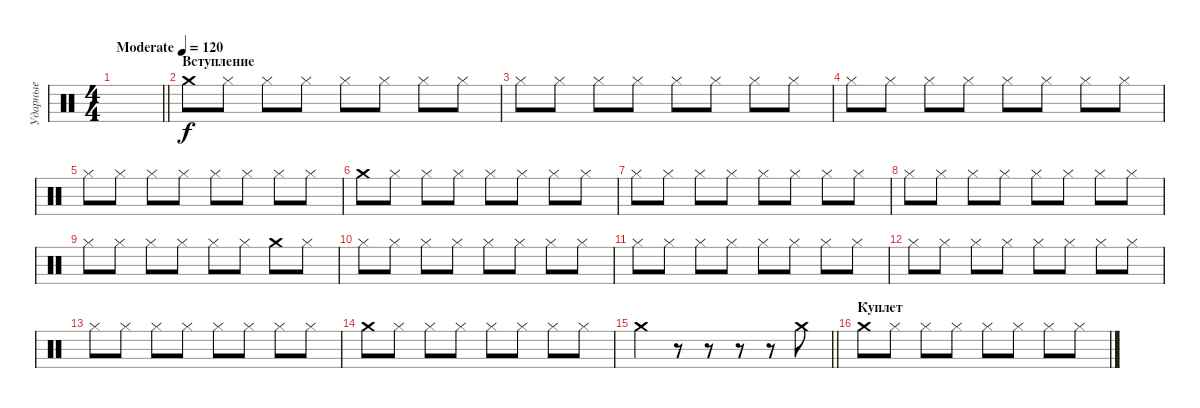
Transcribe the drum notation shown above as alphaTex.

\track ("Ударные" "Ударные") {instrument percussion}
\staff {score}
\articulation defaults
\ts (4 4)
\tempo (120 "Moderate")
\clef neutral
\barLineRight lightlight
\ks c
|
\section ("" "Вступление")
"Crash medium (hit)".8 "Hi-Hat (closed)".8 "Hi-Hat (closed)".8 "Hi-Hat (closed)".8 "Hi-Hat (closed)".8 "Hi-Hat (closed)".8 "Hi-Hat (closed)".8 "Hi-Hat (closed)".8 |
"Hi-Hat (closed)".8 "Hi-Hat (closed)".8 "Hi-Hat (closed)".8 "Hi-Hat (closed)".8 "Hi-Hat (closed)".8 "Hi-Hat (closed)".8 "Hi-Hat (closed)".8 "Hi-Hat (closed)".8 |
"Hi-Hat (closed)".8 "Hi-Hat (closed)".8 "Hi-Hat (closed)".8 "Hi-Hat (closed)".8 "Hi-Hat (closed)".8 "Hi-Hat (closed)".8 "Hi-Hat (closed)".8 "Hi-Hat (closed)".8 |
"Hi-Hat (closed)".8 "Hi-Hat (closed)".8 "Hi-Hat (closed)".8 "Hi-Hat (closed)".8 "Hi-Hat (closed)".8 "Hi-Hat (closed)".8 "Hi-Hat (closed)".8 "Hi-Hat (closed)".8 |
"Crash medium (hit)".8 "Hi-Hat (closed)".8 "Hi-Hat (closed)".8 "Hi-Hat (closed)".8 "Hi-Hat (closed)".8 "Hi-Hat (closed)".8 "Hi-Hat (closed)".8 "Hi-Hat (closed)".8 |
"Hi-Hat (closed)".8 "Hi-Hat (closed)".8 "Hi-Hat (closed)".8 "Hi-Hat (closed)".8 "Hi-Hat (closed)".8 "Hi-Hat (closed)".8 "Hi-Hat (closed)".8 "Hi-Hat (closed)".8 |
"Hi-Hat (closed)".8 "Hi-Hat (closed)".8 "Hi-Hat (closed)".8 "Hi-Hat (closed)".8 "Hi-Hat (closed)".8 "Hi-Hat (closed)".8 "Hi-Hat (closed)".8 "Hi-Hat (closed)".8 |
"Hi-Hat (closed)".8 "Hi-Hat (closed)".8 "Hi-Hat (closed)".8 "Hi-Hat (closed)".8 "Hi-Hat (closed)".8 "Hi-Hat (closed)".8 "Crash medium (hit)".8 "Hi-Hat (closed)".8 |
"Hi-Hat (closed)".8 "Hi-Hat (closed)".8 "Hi-Hat (closed)".8 "Hi-Hat (closed)".8 "Hi-Hat (closed)".8 "Hi-Hat (closed)".8 "Hi-Hat (closed)".8 "Hi-Hat (closed)".8 |
"Hi-Hat (closed)".8 "Hi-Hat (closed)".8 "Hi-Hat (closed)".8 "Hi-Hat (closed)".8 "Hi-Hat (closed)".8 "Hi-Hat (closed)".8 "Hi-Hat (closed)".8 "Hi-Hat (closed)".8 |
"Hi-Hat (closed)".8 "Hi-Hat (closed)".8 "Hi-Hat (closed)".8 "Hi-Hat (closed)".8 "Hi-Hat (closed)".8 "Hi-Hat (closed)".8 "Hi-Hat (closed)".8 "Hi-Hat (closed)".8 |
"Hi-Hat (closed)".8 "Hi-Hat (closed)".8 "Hi-Hat (closed)".8 "Hi-Hat (closed)".8 "Hi-Hat (closed)".8 "Hi-Hat (closed)".8 "Hi-Hat (closed)".8 "Hi-Hat (closed)".8 |
"Crash medium (hit)".8 "Hi-Hat (closed)".8 "Hi-Hat (closed)".8 "Hi-Hat (closed)".8 "Hi-Hat (closed)".8 "Hi-Hat (closed)".8 "Hi-Hat (closed)".8 "Hi-Hat (closed)".8 |
\barLineRight lightlight "Crash medium (hit)".4
r.8 r.8 r.8 r.8 "Crash medium (hit)".8 |
\section ("" "Куплет")
"Crash medium (hit)".8 "Hi-Hat (closed)".8 "Hi-Hat (closed)".8 "Hi-Hat (closed)".8 "Hi-Hat (closed)".8 "Hi-Hat (closed)".8 "Hi-Hat (closed)".8 "Hi-Hat (closed)".8
